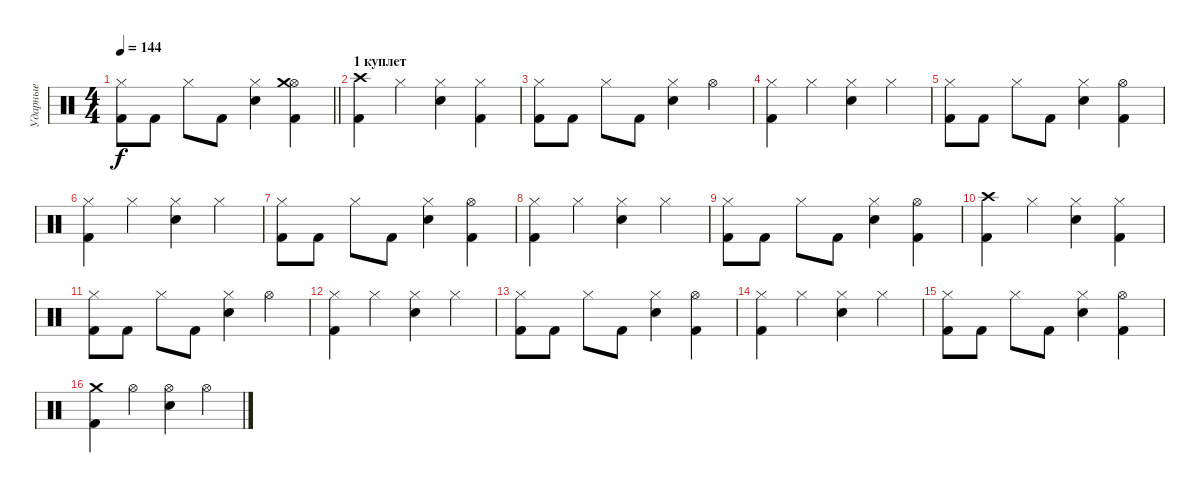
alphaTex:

\track ("Ударные" "Ударные") {instrument percussion}
\staff {score}
\articulation defaults
\ts (4 4)
\tempo 144
\clef neutral
\barLineRight lightlight
\ks c
("Kick (hit) 2" "Hi-Hat (closed)").8{dy f} "Kick (hit) 2".8 "Hi-Hat (closed)".8 "Kick (hit) 2".8 ("Snare (hit) 2" "Hi-Hat (closed)").4 ("Kick (hit) 2" "Hi-Hat (open)" "Crash medium (hit)").4 |
\section ("" "1 куплет")
("Kick (hit) 2" "Crash high (hit)").4 "Hi-Hat (closed)".4 ("Snare (hit) 2" "Hi-Hat (closed)").4 ("Kick (hit) 2" "Hi-Hat (closed)").4 |
("Kick (hit) 2" "Hi-Hat (closed)").8 "Kick (hit) 2".8 "Hi-Hat (closed)".8 "Kick (hit) 2".8 ("Snare (hit) 2" "Hi-Hat (closed)").4 "Hi-Hat (open)".4 |
("Kick (hit) 2" "Hi-Hat (closed)").4 "Hi-Hat (closed)".4 ("Snare (hit) 2" "Hi-Hat (closed)").4 "Hi-Hat (closed)".4 |
("Kick (hit) 2" "Hi-Hat (closed)").8 "Kick (hit) 2".8 "Hi-Hat (closed)".8 "Kick (hit) 2".8 ("Snare (hit) 2" "Hi-Hat (closed)").4 ("Kick (hit) 2" "Hi-Hat (open)").4 |
("Kick (hit) 2" "Hi-Hat (closed)").4 "Hi-Hat (closed)".4 ("Snare (hit) 2" "Hi-Hat (closed)").4 "Hi-Hat (closed)".4 |
("Kick (hit) 2" "Hi-Hat (closed)").8 "Kick (hit) 2".8 "Hi-Hat (closed)".8 "Kick (hit) 2".8 ("Snare (hit) 2" "Hi-Hat (closed)").4 ("Kick (hit) 2" "Hi-Hat (open)").4 |
("Kick (hit) 2" "Hi-Hat (closed)").4 "Hi-Hat (closed)".4 ("Snare (hit) 2" "Hi-Hat (closed)").4 "Hi-Hat (closed)".4 |
("Kick (hit) 2" "Hi-Hat (closed)").8 "Kick (hit) 2".8 "Hi-Hat (closed)".8 "Kick (hit) 2".8 ("Snare (hit) 2" "Hi-Hat (closed)").4 ("Kick (hit) 2" "Hi-Hat (open)").4 |
("Kick (hit) 2" "Crash high (hit)").4 "Hi-Hat (closed)".4 ("Snare (hit) 2" "Hi-Hat (closed)").4 ("Kick (hit) 2" "Hi-Hat (closed)").4 |
("Kick (hit) 2" "Hi-Hat (closed)").8 "Kick (hit) 2".8 "Hi-Hat (closed)".8 "Kick (hit) 2".8 ("Snare (hit) 2" "Hi-Hat (closed)").4 "Hi-Hat (open)".4 |
("Kick (hit) 2" "Hi-Hat (closed)").4 "Hi-Hat (closed)".4 ("Snare (hit) 2" "Hi-Hat (closed)").4 "Hi-Hat (closed)".4 |
("Kick (hit) 2" "Hi-Hat (closed)").8 "Kick (hit) 2".8 "Hi-Hat (closed)".8 "Kick (hit) 2".8 ("Snare (hit) 2" "Hi-Hat (closed)").4 ("Kick (hit) 2" "Hi-Hat (open)").4 |
("Kick (hit) 2" "Hi-Hat (closed)").4 "Hi-Hat (closed)".4 ("Snare (hit) 2" "Hi-Hat (closed)").4 "Hi-Hat (closed)".4 |
("Kick (hit) 2" "Hi-Hat (closed)").8 "Kick (hit) 2".8 "Hi-Hat (closed)".8 "Kick (hit) 2".8 ("Snare (hit) 2" "Hi-Hat (closed)").4 ("Kick (hit) 2" "Hi-Hat (open)").4 |
("Kick (hit) 2" "Crash medium (hit)").4 "Hi-Hat (open)".4 ("Snare (hit) 2" "Hi-Hat (open)").4 "Hi-Hat (open)".4
